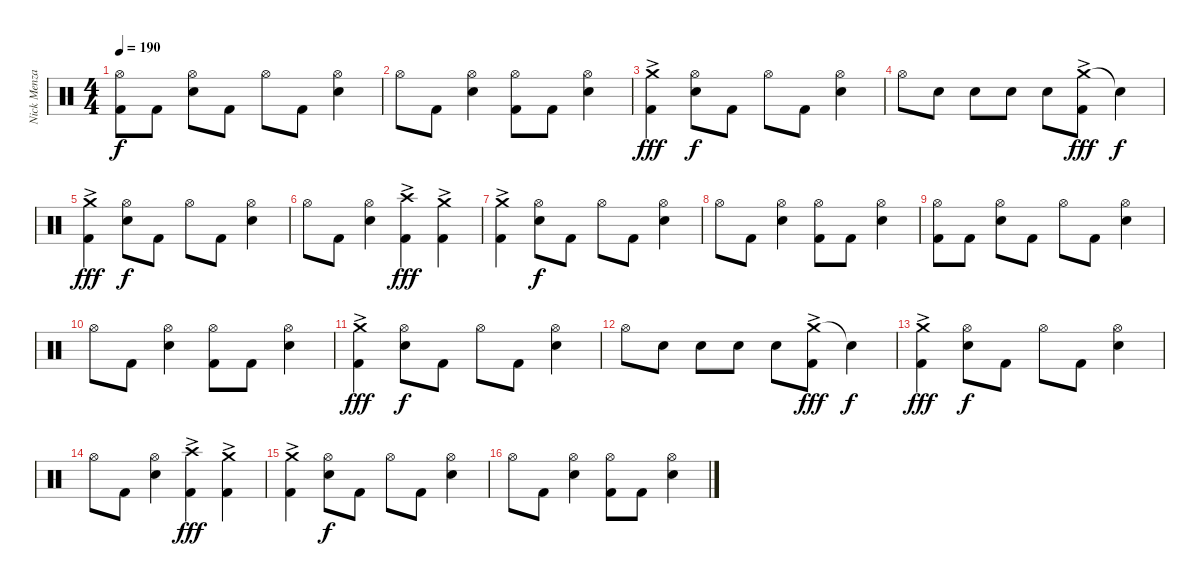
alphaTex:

\track ("Nick Menza" "Nick Menza") {instrument percussion}
\staff {score}
\articulation defaults
\ts (4 4)
\tempo 190
\clef neutral
\ks c
("Hi-Hat (open)" "Kick (hit) 2").8{dy f} "Kick (hit) 2".8 ("Hi-Hat (open)" "Snare (hit) 2").8 "Kick (hit) 2".8 "Hi-Hat (open)".8 "Kick (hit) 2".8 ("Hi-Hat (open)" "Snare (hit) 2").4 |
"Hi-Hat (open)".8 "Kick (hit) 2".8 ("Hi-Hat (open)" "Snare (hit) 2").4 ("Hi-Hat (open)" "Kick (hit) 2").8 "Kick (hit) 2".8 ("Hi-Hat (open)" "Snare (hit) 2").4 |
("Crash medium (hit)"{ac} "Kick (hit) 2").4{dy fff} ("Hi-Hat (open)" "Snare (hit) 2").8{dy f} "Kick (hit) 2".8 "Hi-Hat (open)".8 "Kick (hit) 2".8 ("Hi-Hat (open)" "Snare (hit) 2").4 |
"Hi-Hat (open)".8 "Snare (hit) 2".8 "Snare (hit) 2".8 "Snare (hit) 2".8 "Snare (hit) 2".8 ("Crash medium (hit)"{ac} "Kick (hit) 2").8{dy fff} "Snare (hit)"{t}.4{dy f} |
("Crash medium (hit)"{ac} "Kick (hit) 2").4{dy fff} ("Hi-Hat (open)" "Snare (hit) 2").8{dy f} "Kick (hit) 2".8 "Hi-Hat (open)".8 "Kick (hit) 2".8 ("Hi-Hat (open)" "Snare (hit) 2").4 |
"Hi-Hat (open)".8 "Kick (hit) 2".8 ("Hi-Hat (open)" "Snare (hit) 2").4 ("Crash high (hit)"{ac} "Kick (hit) 2").4{dy fff} ("Crash medium (hit)"{ac} "Kick (hit) 2").4 |
("Crash medium (hit)"{ac} "Kick (hit) 2").4 ("Hi-Hat (open)" "Snare (hit) 2").8{dy f} "Kick (hit) 2".8 "Hi-Hat (open)".8 "Kick (hit) 2".8 ("Hi-Hat (open)" "Snare (hit) 2").4 |
"Hi-Hat (open)".8 "Kick (hit) 2".8 ("Hi-Hat (open)" "Snare (hit) 2").4 ("Hi-Hat (open)" "Kick (hit) 2").8 "Kick (hit) 2".8 ("Hi-Hat (open)" "Snare (hit) 2").4 |
("Hi-Hat (open)" "Kick (hit) 2").8 "Kick (hit) 2".8 ("Hi-Hat (open)" "Snare (hit) 2").8 "Kick (hit) 2".8 "Hi-Hat (open)".8 "Kick (hit) 2".8 ("Hi-Hat (open)" "Snare (hit) 2").4 |
"Hi-Hat (open)".8 "Kick (hit) 2".8 ("Hi-Hat (open)" "Snare (hit) 2").4 ("Hi-Hat (open)" "Kick (hit) 2").8 "Kick (hit) 2".8 ("Hi-Hat (open)" "Snare (hit) 2").4 |
("Crash medium (hit)"{ac} "Kick (hit) 2").4{dy fff} ("Hi-Hat (open)" "Snare (hit) 2").8{dy f} "Kick (hit) 2".8 "Hi-Hat (open)".8 "Kick (hit) 2".8 ("Hi-Hat (open)" "Snare (hit) 2").4 |
"Hi-Hat (open)".8 "Snare (hit) 2".8 "Snare (hit) 2".8 "Snare (hit) 2".8 "Snare (hit) 2".8 ("Crash medium (hit)"{ac} "Kick (hit) 2").8{dy fff} "Snare (hit)"{t}.4{dy f} |
("Crash medium (hit)"{ac} "Kick (hit) 2").4{dy fff} ("Hi-Hat (open)" "Snare (hit) 2").8{dy f} "Kick (hit) 2".8 "Hi-Hat (open)".8 "Kick (hit) 2".8 ("Hi-Hat (open)" "Snare (hit) 2").4 |
"Hi-Hat (open)".8 "Kick (hit) 2".8 ("Hi-Hat (open)" "Snare (hit) 2").4 ("Crash high (hit)"{ac} "Kick (hit) 2").4{dy fff} ("Crash medium (hit)"{ac} "Kick (hit) 2").4 |
("Crash medium (hit)"{ac} "Kick (hit) 2").4 ("Hi-Hat (open)" "Snare (hit) 2").8{dy f} "Kick (hit) 2".8 "Hi-Hat (open)".8 "Kick (hit) 2".8 ("Hi-Hat (open)" "Snare (hit) 2").4 |
"Hi-Hat (open)".8 "Kick (hit) 2".8 ("Hi-Hat (open)" "Snare (hit) 2").4 ("Hi-Hat (open)" "Kick (hit) 2").8 "Kick (hit) 2".8 ("Hi-Hat (open)" "Snare (hit) 2").4
